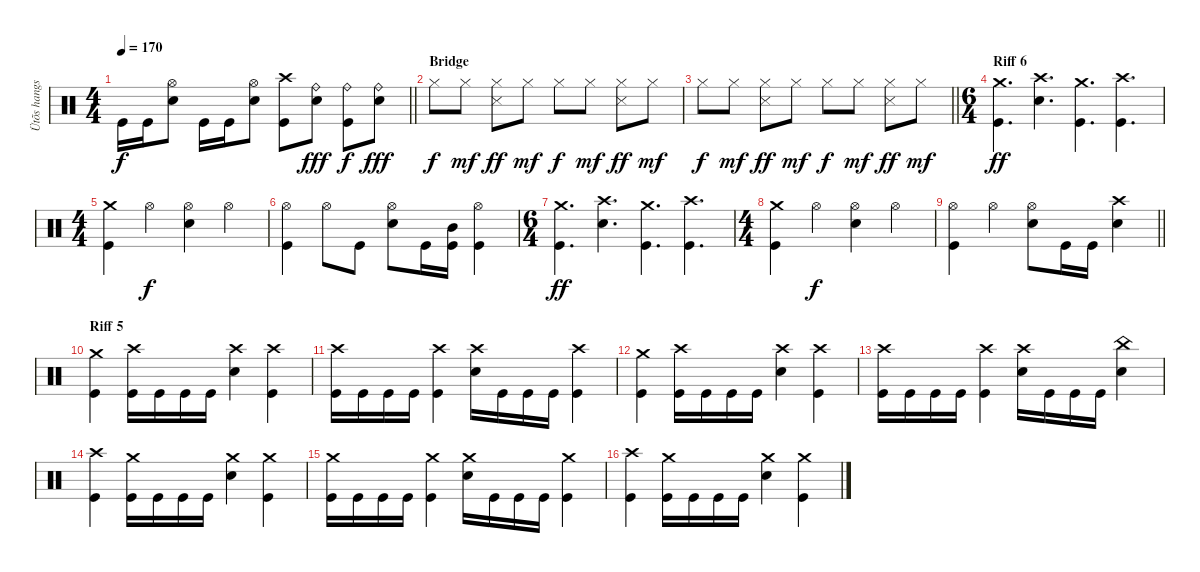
\track ("Ütõs hangszer" "Ütõs hangs") {instrument percussion}
\staff {score}
\articulation defaults
\ts (4 4)
\tempo 170
\clef neutral
\barLineRight lightlight
\ks c "Kick (hit)".16{dy f} "Kick (hit)".16
("Hi-Hat (open)" "Electric Snare (hit)").8 "Kick (hit)".16 "Kick (hit)".16 ("Hi-Hat (open)" "Electric Snare (hit)").8 ("Crash high (hit)" "Kick (hit)").8 ("Ride (bell)" "Electric Snare (hit)").8{dy fff} ("Ride (bell)" "Kick (hit)").8{dy f} ("Ride (bell)" "Electric Snare (hit)").8{dy fff} |
\section ("" "Bridge")
"Hi-Hat (closed)".8{dy f} "Hi-Hat (closed)".8{dy mf} ("Hi-Hat (closed)" "Snare (side stick) 3").8{dy ff} "Hi-Hat (closed)".8{dy mf} "Hi-Hat (closed)".8{dy f} "Hi-Hat (closed)".8{dy mf} ("Hi-Hat (closed)" "Snare (side stick) 3").8{dy ff} "Hi-Hat (closed)".8{dy mf} |
\barLineRight lightlight "Hi-Hat (closed)".8{dy f} "Hi-Hat (closed)".8{dy mf}
("Hi-Hat (closed)" "Snare (side stick) 3").8{dy ff} "Hi-Hat (closed)".8{dy mf} "Hi-Hat (closed)".8{dy f} "Hi-Hat (closed)".8{dy mf} ("Hi-Hat (closed)" "Snare (side stick) 3").8{dy ff} "Hi-Hat (closed)".8{dy mf} |
\ts (6 4)
\section ("" "Riff 6")
("Crash medium (hit)" "Kick (hit)").4{d dy ff} ("Crash high (hit)" "Electric Snare (hit)").4{d} ("Crash medium (hit)" "Kick (hit)").4{d} ("Crash high (hit)" "Kick (hit)").4{d} |
\ts (4 4)
("Crash medium (hit)" "Kick (hit)").4 "Hi-Hat (open)".4{dy f} ("Hi-Hat (open)" "Electric Snare (hit)").4 "Hi-Hat (open)".4 |
("Hi-Hat (open)" "Kick (hit)").4 "Hi-Hat (open)".8 "Kick (hit)".8 ("Hi-Hat (open)" "Electric Snare (hit)").8 "Kick (hit)".16 ("Mid Tom (hit)" "Kick (hit)").16 ("Hi-Hat (open)" "Kick (hit)").4 |
\ts (6 4)
("Crash medium (hit)" "Kick (hit)").4{d dy ff} ("Crash high (hit)" "Electric Snare (hit)").4{d} ("Crash medium (hit)" "Kick (hit)").4{d} ("Crash high (hit)" "Kick (hit)").4{d} |
\ts (4 4)
("Crash medium (hit)" "Kick (hit)").4 "Hi-Hat (open)".4{dy f} ("Hi-Hat (open)" "Electric Snare (hit)").4 "Hi-Hat (open)".4 |
\barLineRight lightlight
("Hi-Hat (open)" "Kick (hit)").4 "Hi-Hat (open)".4 ("Hi-Hat (open)" "Electric Snare (hit)").8 "Kick (hit)".16 "Kick (hit)".16 ("Crash high (hit)" "Electric Snare (hit)").4 |
\section ("" "Riff 5")
("Crash medium (hit)" "Kick (hit)").4 ("Crash high (hit)" "Kick (hit)").16 "Kick (hit)".16 "Kick (hit)".16 "Kick (hit)".16 ("Crash high (hit)" "Electric Snare (hit)").4 ("Crash high (hit)" "Kick (hit)").4 |
("Crash high (hit)" "Kick (hit)").16 "Kick (hit)".16 "Kick (hit)".16 "Kick (hit)".16 ("Crash high (hit)" "Kick (hit)").4 ("Crash high (hit)" "Electric Snare (hit)").16 "Kick (hit)".16 "Kick (hit)".16 "Kick (hit)".16 ("Crash high (hit)" "Kick (hit)").4 |
("Crash medium (hit)" "Kick (hit)").4 ("Crash high (hit)" "Kick (hit)").16 "Kick (hit)".16 "Kick (hit)".16 "Kick (hit)".16 ("Crash high (hit)" "Electric Snare (hit)").4 ("Crash high (hit)" "Kick (hit)").4 |
("Crash high (hit)" "Kick (hit)").16 "Kick (hit)".16 "Kick (hit)".16 "Kick (hit)".16 ("Crash high (hit)" "Kick (hit)").4 ("Crash high (hit)" "Electric Snare (hit)").16 "Kick (hit)".16 "Kick (hit)".16 "Kick (hit)".16 ("China (hit)" "Electric Snare (hit)").4 |
("Crash high (hit)" "Kick (hit)").4 ("Crash medium (hit)" "Kick (hit)").16 "Kick (hit)".16 "Kick (hit)".16 "Kick (hit)".16 ("Crash medium (hit)" "Electric Snare (hit)").4 ("Crash medium (hit)" "Kick (hit)").4 |
("Crash medium (hit)" "Kick (hit)").16 "Kick (hit)".16 "Kick (hit)".16 "Kick (hit)".16 ("Crash medium (hit)" "Kick (hit)").4 ("Crash medium (hit)" "Electric Snare (hit)").16 "Kick (hit)".16 "Kick (hit)".16 "Kick (hit)".16 ("Crash medium (hit)" "Kick (hit)").4 |
("Crash high (hit)" "Kick (hit)").4 ("Crash medium (hit)" "Kick (hit)").16 "Kick (hit)".16 "Kick (hit)".16 "Kick (hit)".16 ("Crash medium (hit)" "Electric Snare (hit)").4 ("Crash medium (hit)" "Kick (hit)").4
